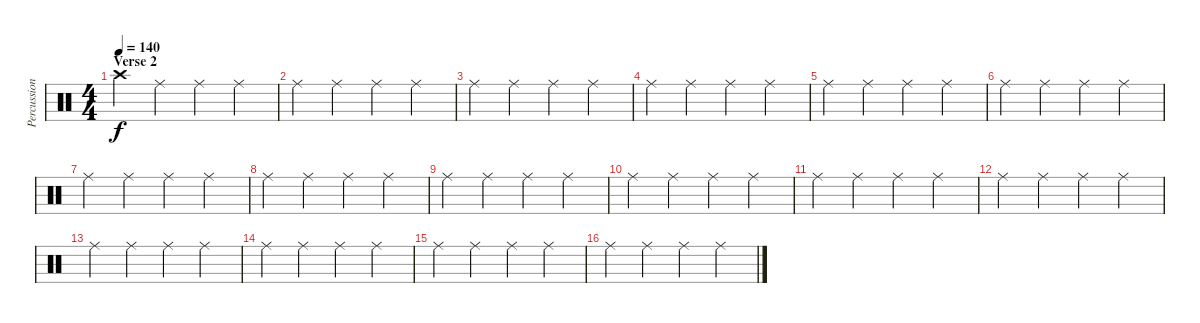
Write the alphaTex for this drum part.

\track ("Percussion" "Percussion") {instrument percussion}
\staff {score}
\articulation defaults
\ts (4 4)
\section ("" "Verse 2")
\tempo 140
\clef neutral
\ks c "Crash high (hit)".4{dy f} "Ride (middle)".4 "Ride (middle)".4 "Ride (middle)".4
|
"Ride (middle)".4 "Ride (middle)".4 "Ride (middle)".4 "Ride (middle)".4 |
"Ride (middle)".4 "Ride (middle)".4 "Ride (middle)".4 "Ride (middle)".4 |
"Ride (middle)".4 "Ride (middle)".4 "Ride (middle)".4 "Ride (middle)".4 |
"Ride (middle)".4 "Ride (middle)".4 "Ride (middle)".4 "Ride (middle)".4 |
"Ride (middle)".4 "Ride (middle)".4 "Ride (middle)".4 "Ride (middle)".4 |
"Ride (middle)".4 "Ride (middle)".4 "Ride (middle)".4 "Ride (middle)".4 |
"Ride (middle)".4 "Ride (middle)".4 "Ride (middle)".4 "Ride (middle)".4 |
"Ride (middle)".4 "Ride (middle)".4 "Ride (middle)".4 "Ride (middle)".4 |
"Ride (middle)".4 "Ride (middle)".4 "Ride (middle)".4 "Ride (middle)".4 |
"Ride (middle)".4 "Ride (middle)".4 "Ride (middle)".4 "Ride (middle)".4 |
"Ride (middle)".4 "Ride (middle)".4 "Ride (middle)".4 "Ride (middle)".4 |
"Ride (middle)".4 "Ride (middle)".4 "Ride (middle)".4 "Ride (middle)".4 |
"Ride (middle)".4 "Ride (middle)".4 "Ride (middle)".4 "Ride (middle)".4 |
"Ride (middle)".4 "Ride (middle)".4 "Ride (middle)".4 "Ride (middle)".4 |
"Ride (middle)".4 "Ride (middle)".4 "Ride (middle)".4 "Ride (middle)".4
